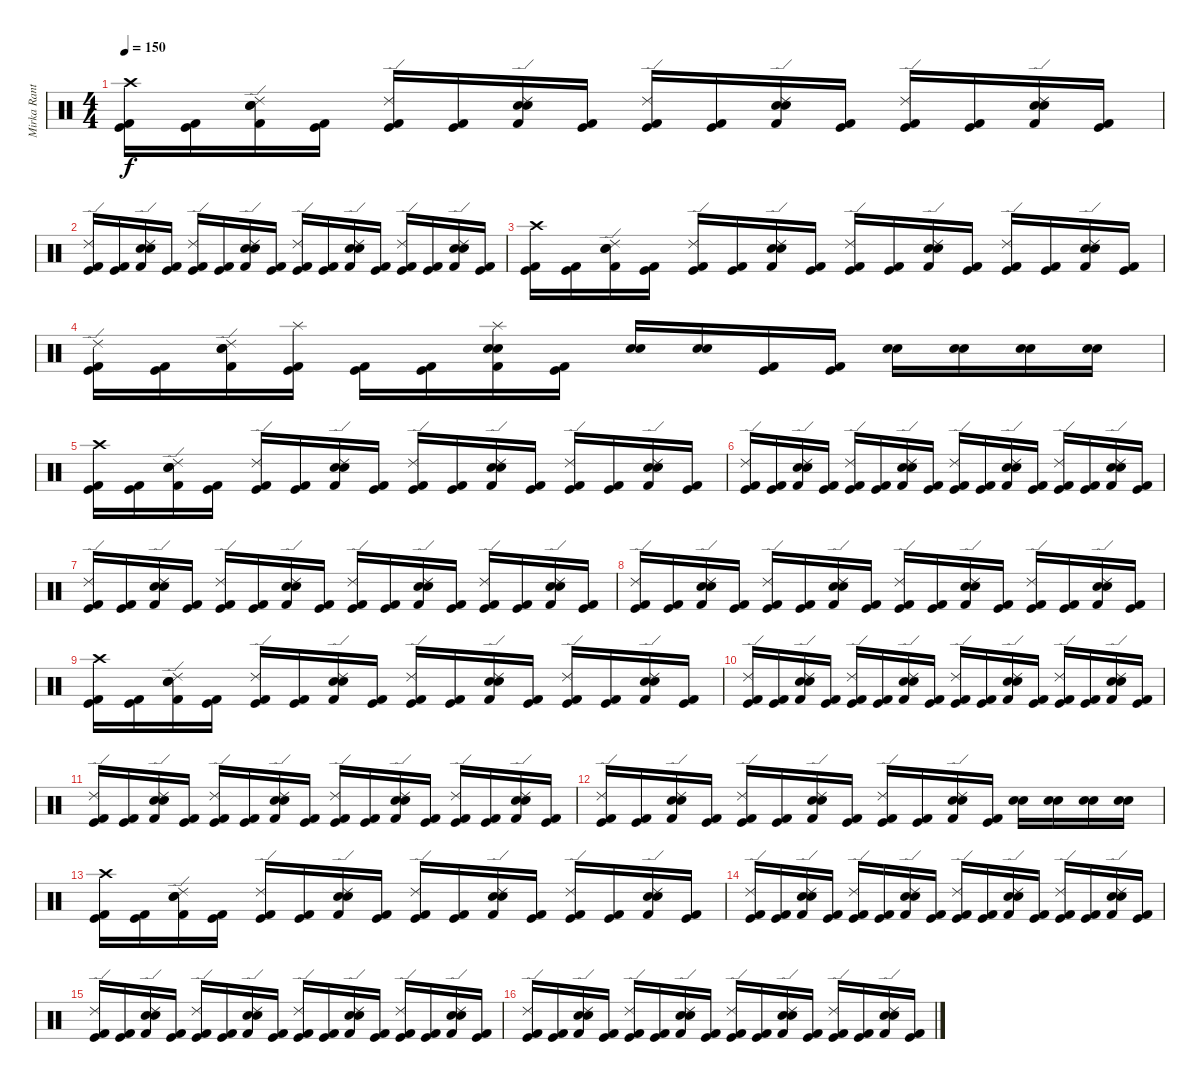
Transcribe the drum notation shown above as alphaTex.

\track ("Mirka Rantanen" "Mirka Rant") {instrument percussion}
\staff {score}
\articulation defaults
\ts (4 4)
\tempo 150
\clef neutral
\ks c
("Crash high (hit)" "Kick (hit)" "Kick (hit) 2").16{dy f} ("Kick (hit)" "Kick (hit) 2").16 ("Ride (edge) 2" "Kick (hit) 2" "Electric Snare (hit)" "Snare (hit) 2").16 ("Kick (hit)" "Kick (hit) 2").16 ("Ride (edge) 2" "Kick (hit)" "Kick (hit) 2").16 ("Kick (hit)" "Kick (hit) 2").16 ("Ride (edge) 2" "Kick (hit) 2" "Electric Snare (hit)" "Snare (hit) 2").16 ("Kick (hit)" "Kick (hit) 2").16 ("Ride (edge) 2" "Kick (hit)" "Kick (hit) 2").16 ("Kick (hit)" "Kick (hit) 2").16 ("Ride (edge) 2" "Kick (hit) 2" "Electric Snare (hit)" "Snare (hit) 2").16 ("Kick (hit)" "Kick (hit) 2").16 ("Ride (edge) 2" "Kick (hit)" "Kick (hit) 2").16 ("Kick (hit)" "Kick (hit) 2").16 ("Ride (edge) 2" "Kick (hit) 2" "Electric Snare (hit)" "Snare (hit) 2").16 ("Kick (hit)" "Kick (hit) 2").16 |
("Ride (edge) 2" "Kick (hit)" "Kick (hit) 2").16 ("Kick (hit)" "Kick (hit) 2").16 ("Ride (edge) 2" "Kick (hit) 2" "Electric Snare (hit)" "Snare (hit) 2").16 ("Kick (hit)" "Kick (hit) 2").16 ("Ride (edge) 2" "Kick (hit)" "Kick (hit) 2").16 ("Kick (hit)" "Kick (hit) 2").16 ("Ride (edge) 2" "Kick (hit) 2" "Electric Snare (hit)" "Snare (hit) 2").16 ("Kick (hit)" "Kick (hit) 2").16 ("Ride (edge) 2" "Kick (hit)" "Kick (hit) 2").16 ("Kick (hit)" "Kick (hit) 2").16 ("Ride (edge) 2" "Kick (hit) 2" "Electric Snare (hit)" "Snare (hit) 2").16 ("Kick (hit)" "Kick (hit) 2").16 ("Ride (edge) 2" "Kick (hit)" "Kick (hit) 2").16 ("Kick (hit)" "Kick (hit) 2").16 ("Ride (edge) 2" "Kick (hit) 2" "Electric Snare (hit)" "Snare (hit) 2").16 ("Kick (hit)" "Kick (hit) 2").16 |
("Crash high (hit)" "Kick (hit)" "Kick (hit) 2").16 ("Kick (hit)" "Kick (hit) 2").16 ("Ride (edge) 2" "Kick (hit) 2" "Electric Snare (hit)" "Snare (hit) 2").16 ("Kick (hit)" "Kick (hit) 2").16 ("Ride (edge) 2" "Kick (hit)" "Kick (hit) 2").16 ("Kick (hit)" "Kick (hit) 2").16 ("Ride (edge) 2" "Kick (hit) 2" "Electric Snare (hit)" "Snare (hit) 2").16 ("Kick (hit)" "Kick (hit) 2").16 ("Ride (edge) 2" "Kick (hit)" "Kick (hit) 2").16 ("Kick (hit)" "Kick (hit) 2").16 ("Ride (edge) 2" "Kick (hit) 2" "Electric Snare (hit)" "Snare (hit) 2").16 ("Kick (hit)" "Kick (hit) 2").16 ("Ride (edge) 2" "Kick (hit)" "Kick (hit) 2").16 ("Kick (hit)" "Kick (hit) 2").16 ("Ride (edge) 2" "Kick (hit) 2" "Electric Snare (hit)" "Snare (hit) 2").16 ("Kick (hit)" "Kick (hit) 2").16 |
("Ride (edge) 2" "Kick (hit)" "Kick (hit) 2").16 ("Kick (hit)" "Kick (hit) 2").16 ("Ride (edge) 2" "Kick (hit) 2" "Electric Snare (hit)" "Snare (hit) 2").16 ("Splash (hit)" "Kick (hit)" "Kick (hit) 2").16 ("Kick (hit)" "Kick (hit) 2").16 ("Kick (hit)" "Kick (hit) 2").16 ("Splash (hit)" "Kick (hit) 2" "Electric Snare (hit)" "Snare (hit) 2").16 ("Kick (hit)" "Kick (hit) 2").16 ("Electric Snare (hit)" "Snare (hit) 2").16 ("Electric Snare (hit)" "Snare (hit) 2").16 ("Kick (hit)" "Kick (hit) 2").16 ("Kick (hit)" "Kick (hit) 2").16 ("Electric Snare (hit)" "Snare (hit) 2").16 ("Electric Snare (hit)" "Snare (hit) 2").16 ("Electric Snare (hit)" "Snare (hit) 2").16 ("Electric Snare (hit)" "Snare (hit) 2").16 |
("Crash high (hit)" "Kick (hit)" "Kick (hit) 2").16 ("Kick (hit)" "Kick (hit) 2").16 ("Ride (edge) 2" "Kick (hit) 2" "Electric Snare (hit)" "Snare (hit) 2").16 ("Kick (hit)" "Kick (hit) 2").16 ("Ride (edge) 2" "Kick (hit)" "Kick (hit) 2").16 ("Kick (hit)" "Kick (hit) 2").16 ("Ride (edge) 2" "Kick (hit) 2" "Electric Snare (hit)" "Snare (hit) 2").16 ("Kick (hit)" "Kick (hit) 2").16 ("Ride (edge) 2" "Kick (hit)" "Kick (hit) 2").16 ("Kick (hit)" "Kick (hit) 2").16 ("Ride (edge) 2" "Kick (hit) 2" "Electric Snare (hit)" "Snare (hit) 2").16 ("Kick (hit)" "Kick (hit) 2").16 ("Ride (edge) 2" "Kick (hit)" "Kick (hit) 2").16 ("Kick (hit)" "Kick (hit) 2").16 ("Ride (edge) 2" "Kick (hit) 2" "Electric Snare (hit)" "Snare (hit) 2").16 ("Kick (hit)" "Kick (hit) 2").16 |
("Ride (edge) 2" "Kick (hit)" "Kick (hit) 2").16 ("Kick (hit)" "Kick (hit) 2").16 ("Ride (edge) 2" "Kick (hit) 2" "Electric Snare (hit)" "Snare (hit) 2").16 ("Kick (hit)" "Kick (hit) 2").16 ("Ride (edge) 2" "Kick (hit)" "Kick (hit) 2").16 ("Kick (hit)" "Kick (hit) 2").16 ("Ride (edge) 2" "Kick (hit) 2" "Electric Snare (hit)" "Snare (hit) 2").16 ("Kick (hit)" "Kick (hit) 2").16 ("Ride (edge) 2" "Kick (hit)" "Kick (hit) 2").16 ("Kick (hit)" "Kick (hit) 2").16 ("Ride (edge) 2" "Kick (hit) 2" "Electric Snare (hit)" "Snare (hit) 2").16 ("Kick (hit)" "Kick (hit) 2").16 ("Ride (edge) 2" "Kick (hit)" "Kick (hit) 2").16 ("Kick (hit)" "Kick (hit) 2").16 ("Ride (edge) 2" "Kick (hit) 2" "Electric Snare (hit)" "Snare (hit) 2").16 ("Kick (hit)" "Kick (hit) 2").16 |
("Ride (edge) 2" "Kick (hit)" "Kick (hit) 2").16 ("Kick (hit)" "Kick (hit) 2").16 ("Ride (edge) 2" "Kick (hit) 2" "Electric Snare (hit)" "Snare (hit) 2").16 ("Kick (hit)" "Kick (hit) 2").16 ("Ride (edge) 2" "Kick (hit)" "Kick (hit) 2").16 ("Kick (hit)" "Kick (hit) 2").16 ("Ride (edge) 2" "Kick (hit) 2" "Electric Snare (hit)" "Snare (hit) 2").16 ("Kick (hit)" "Kick (hit) 2").16 ("Ride (edge) 2" "Kick (hit)" "Kick (hit) 2").16 ("Kick (hit)" "Kick (hit) 2").16 ("Ride (edge) 2" "Kick (hit) 2" "Electric Snare (hit)" "Snare (hit) 2").16 ("Kick (hit)" "Kick (hit) 2").16 ("Ride (edge) 2" "Kick (hit)" "Kick (hit) 2").16 ("Kick (hit)" "Kick (hit) 2").16 ("Ride (edge) 2" "Kick (hit) 2" "Electric Snare (hit)" "Snare (hit) 2").16 ("Kick (hit)" "Kick (hit) 2").16 |
("Ride (edge) 2" "Kick (hit)" "Kick (hit) 2").16 ("Kick (hit)" "Kick (hit) 2").16 ("Ride (edge) 2" "Kick (hit) 2" "Electric Snare (hit)" "Snare (hit) 2").16 ("Kick (hit)" "Kick (hit) 2").16 ("Ride (edge) 2" "Kick (hit)" "Kick (hit) 2").16 ("Kick (hit)" "Kick (hit) 2").16 ("Ride (edge) 2" "Kick (hit) 2" "Electric Snare (hit)" "Snare (hit) 2").16 ("Kick (hit)" "Kick (hit) 2").16 ("Ride (edge) 2" "Kick (hit)" "Kick (hit) 2").16 ("Kick (hit)" "Kick (hit) 2").16 ("Ride (edge) 2" "Kick (hit) 2" "Electric Snare (hit)" "Snare (hit) 2").16 ("Kick (hit)" "Kick (hit) 2").16 ("Ride (edge) 2" "Kick (hit)" "Kick (hit) 2").16 ("Kick (hit)" "Kick (hit) 2").16 ("Ride (edge) 2" "Kick (hit) 2" "Electric Snare (hit)" "Snare (hit) 2").16 ("Kick (hit)" "Kick (hit) 2").16 |
("Crash high (hit)" "Kick (hit)" "Kick (hit) 2").16 ("Kick (hit)" "Kick (hit) 2").16 ("Ride (edge) 2" "Kick (hit) 2" "Electric Snare (hit)" "Snare (hit) 2").16 ("Kick (hit)" "Kick (hit) 2").16 ("Ride (edge) 2" "Kick (hit)" "Kick (hit) 2").16 ("Kick (hit)" "Kick (hit) 2").16 ("Ride (edge) 2" "Kick (hit) 2" "Electric Snare (hit)" "Snare (hit) 2").16 ("Kick (hit)" "Kick (hit) 2").16 ("Ride (edge) 2" "Kick (hit)" "Kick (hit) 2").16 ("Kick (hit)" "Kick (hit) 2").16 ("Ride (edge) 2" "Kick (hit) 2" "Electric Snare (hit)" "Snare (hit) 2").16 ("Kick (hit)" "Kick (hit) 2").16 ("Ride (edge) 2" "Kick (hit)" "Kick (hit) 2").16 ("Kick (hit)" "Kick (hit) 2").16 ("Ride (edge) 2" "Kick (hit) 2" "Electric Snare (hit)" "Snare (hit) 2").16 ("Kick (hit)" "Kick (hit) 2").16 |
("Ride (edge) 2" "Kick (hit)" "Kick (hit) 2").16 ("Kick (hit)" "Kick (hit) 2").16 ("Ride (edge) 2" "Kick (hit) 2" "Electric Snare (hit)" "Snare (hit) 2").16 ("Kick (hit)" "Kick (hit) 2").16 ("Ride (edge) 2" "Kick (hit)" "Kick (hit) 2").16 ("Kick (hit)" "Kick (hit) 2").16 ("Ride (edge) 2" "Kick (hit) 2" "Electric Snare (hit)" "Snare (hit) 2").16 ("Kick (hit)" "Kick (hit) 2").16 ("Ride (edge) 2" "Kick (hit)" "Kick (hit) 2").16 ("Kick (hit)" "Kick (hit) 2").16 ("Ride (edge) 2" "Kick (hit) 2" "Electric Snare (hit)" "Snare (hit) 2").16 ("Kick (hit)" "Kick (hit) 2").16 ("Ride (edge) 2" "Kick (hit)" "Kick (hit) 2").16 ("Kick (hit)" "Kick (hit) 2").16 ("Ride (edge) 2" "Kick (hit) 2" "Electric Snare (hit)" "Snare (hit) 2").16 ("Kick (hit)" "Kick (hit) 2").16 |
("Ride (edge) 2" "Kick (hit)" "Kick (hit) 2").16 ("Kick (hit)" "Kick (hit) 2").16 ("Ride (edge) 2" "Kick (hit) 2" "Electric Snare (hit)" "Snare (hit) 2").16 ("Kick (hit)" "Kick (hit) 2").16 ("Ride (edge) 2" "Kick (hit)" "Kick (hit) 2").16 ("Kick (hit)" "Kick (hit) 2").16 ("Ride (edge) 2" "Kick (hit) 2" "Electric Snare (hit)" "Snare (hit) 2").16 ("Kick (hit)" "Kick (hit) 2").16 ("Ride (edge) 2" "Kick (hit)" "Kick (hit) 2").16 ("Kick (hit)" "Kick (hit) 2").16 ("Ride (edge) 2" "Kick (hit) 2" "Electric Snare (hit)" "Snare (hit) 2").16 ("Kick (hit)" "Kick (hit) 2").16 ("Ride (edge) 2" "Kick (hit)" "Kick (hit) 2").16 ("Kick (hit)" "Kick (hit) 2").16 ("Ride (edge) 2" "Kick (hit) 2" "Electric Snare (hit)" "Snare (hit) 2").16 ("Kick (hit)" "Kick (hit) 2").16 |
("Ride (edge) 2" "Kick (hit)" "Kick (hit) 2").16 ("Kick (hit)" "Kick (hit) 2").16 ("Ride (edge) 2" "Kick (hit) 2" "Electric Snare (hit)" "Snare (hit) 2").16 ("Kick (hit)" "Kick (hit) 2").16 ("Ride (edge) 2" "Kick (hit)" "Kick (hit) 2").16 ("Kick (hit)" "Kick (hit) 2").16 ("Ride (edge) 2" "Kick (hit) 2" "Electric Snare (hit)" "Snare (hit) 2").16 ("Kick (hit)" "Kick (hit) 2").16 ("Ride (edge) 2" "Kick (hit)" "Kick (hit) 2").16 ("Kick (hit)" "Kick (hit) 2").16 ("Ride (edge) 2" "Kick (hit) 2" "Electric Snare (hit)" "Snare (hit) 2").16 ("Kick (hit)" "Kick (hit) 2").16 ("Electric Snare (hit)" "Snare (hit) 2").16 ("Electric Snare (hit)" "Snare (hit) 2").16 ("Electric Snare (hit)" "Snare (hit) 2").16 ("Electric Snare (hit)" "Snare (hit) 2").16 |
("Crash high (hit)" "Kick (hit)" "Kick (hit) 2").16 ("Kick (hit)" "Kick (hit) 2").16 ("Ride (edge) 2" "Kick (hit) 2" "Electric Snare (hit)" "Snare (hit) 2").16 ("Kick (hit)" "Kick (hit) 2").16 ("Ride (edge) 2" "Kick (hit)" "Kick (hit) 2").16 ("Kick (hit)" "Kick (hit) 2").16 ("Ride (edge) 2" "Kick (hit) 2" "Electric Snare (hit)" "Snare (hit) 2").16 ("Kick (hit)" "Kick (hit) 2").16 ("Ride (edge) 2" "Kick (hit)" "Kick (hit) 2").16 ("Kick (hit)" "Kick (hit) 2").16 ("Ride (edge) 2" "Kick (hit) 2" "Electric Snare (hit)" "Snare (hit) 2").16 ("Kick (hit)" "Kick (hit) 2").16 ("Ride (edge) 2" "Kick (hit)" "Kick (hit) 2").16 ("Kick (hit)" "Kick (hit) 2").16 ("Ride (edge) 2" "Kick (hit) 2" "Electric Snare (hit)" "Snare (hit) 2").16 ("Kick (hit)" "Kick (hit) 2").16 |
("Ride (edge) 2" "Kick (hit)" "Kick (hit) 2").16 ("Kick (hit)" "Kick (hit) 2").16 ("Ride (edge) 2" "Kick (hit) 2" "Electric Snare (hit)" "Snare (hit) 2").16 ("Kick (hit)" "Kick (hit) 2").16 ("Ride (edge) 2" "Kick (hit)" "Kick (hit) 2").16 ("Kick (hit)" "Kick (hit) 2").16 ("Ride (edge) 2" "Kick (hit) 2" "Electric Snare (hit)" "Snare (hit) 2").16 ("Kick (hit)" "Kick (hit) 2").16 ("Ride (edge) 2" "Kick (hit)" "Kick (hit) 2").16 ("Kick (hit)" "Kick (hit) 2").16 ("Ride (edge) 2" "Kick (hit) 2" "Electric Snare (hit)" "Snare (hit) 2").16 ("Kick (hit)" "Kick (hit) 2").16 ("Ride (edge) 2" "Kick (hit)" "Kick (hit) 2").16 ("Kick (hit)" "Kick (hit) 2").16 ("Ride (edge) 2" "Kick (hit) 2" "Electric Snare (hit)" "Snare (hit) 2").16 ("Kick (hit)" "Kick (hit) 2").16 |
("Ride (edge) 2" "Kick (hit)" "Kick (hit) 2").16 ("Kick (hit)" "Kick (hit) 2").16 ("Ride (edge) 2" "Kick (hit) 2" "Electric Snare (hit)" "Snare (hit) 2").16 ("Kick (hit)" "Kick (hit) 2").16 ("Ride (edge) 2" "Kick (hit)" "Kick (hit) 2").16 ("Kick (hit)" "Kick (hit) 2").16 ("Ride (edge) 2" "Kick (hit) 2" "Electric Snare (hit)" "Snare (hit) 2").16 ("Kick (hit)" "Kick (hit) 2").16 ("Ride (edge) 2" "Kick (hit)" "Kick (hit) 2").16 ("Kick (hit)" "Kick (hit) 2").16 ("Ride (edge) 2" "Kick (hit) 2" "Electric Snare (hit)" "Snare (hit) 2").16 ("Kick (hit)" "Kick (hit) 2").16 ("Ride (edge) 2" "Kick (hit)" "Kick (hit) 2").16 ("Kick (hit)" "Kick (hit) 2").16 ("Ride (edge) 2" "Kick (hit) 2" "Electric Snare (hit)" "Snare (hit) 2").16 ("Kick (hit)" "Kick (hit) 2").16 |
("Ride (edge) 2" "Kick (hit)" "Kick (hit) 2").16 ("Kick (hit)" "Kick (hit) 2").16 ("Ride (edge) 2" "Kick (hit) 2" "Electric Snare (hit)" "Snare (hit) 2").16 ("Kick (hit)" "Kick (hit) 2").16 ("Ride (edge) 2" "Kick (hit)" "Kick (hit) 2").16 ("Kick (hit)" "Kick (hit) 2").16 ("Ride (edge) 2" "Kick (hit) 2" "Electric Snare (hit)" "Snare (hit) 2").16 ("Kick (hit)" "Kick (hit) 2").16 ("Ride (edge) 2" "Kick (hit)" "Kick (hit) 2").16 ("Kick (hit)" "Kick (hit) 2").16 ("Ride (edge) 2" "Kick (hit) 2" "Electric Snare (hit)" "Snare (hit) 2").16 ("Kick (hit)" "Kick (hit) 2").16 ("Ride (edge) 2" "Kick (hit)" "Kick (hit) 2").16 ("Kick (hit)" "Kick (hit) 2").16 ("Ride (edge) 2" "Kick (hit) 2" "Electric Snare (hit)" "Snare (hit) 2").16 ("Kick (hit)" "Kick (hit) 2").16
